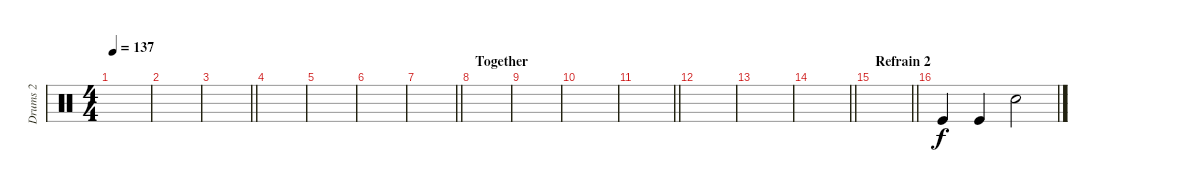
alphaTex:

\track ("Drums 2" "Drums 2") {instrument percussion}
\staff {score}
\articulation defaults
\ts (4 4)
\tempo 137
\clef neutral
\ks c
|
|
\barLineRight lightlight
|
|
|
|
\barLineRight lightlight
|
\section ("" "Together")
|
|
|
\barLineRight lightlight
|
|
|
\barLineRight lightlight
|
\section ("" "Refrain 2")
\barLineRight lightlight
|
"Kick (hit)".4 "Kick (hit)".4 "Snare (hit) 2".2
